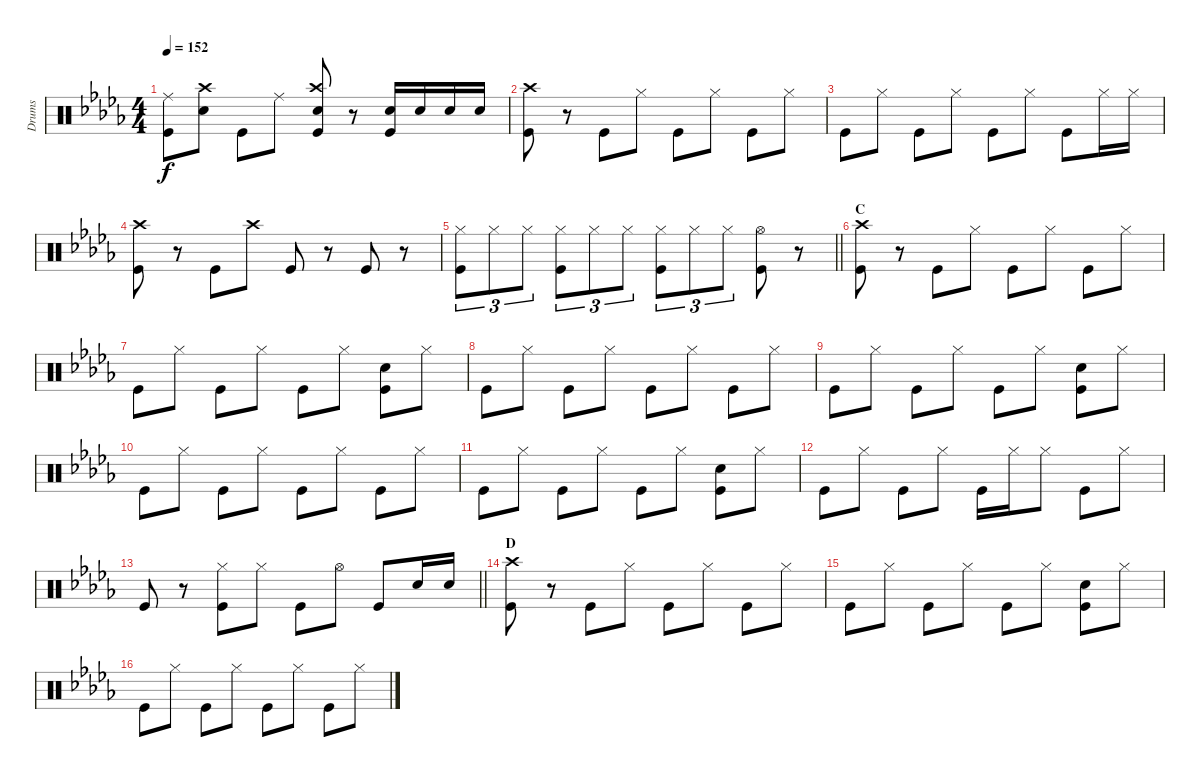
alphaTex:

\track ("Drums" "Drums") {instrument percussion}
\staff {score}
\articulation defaults
\ts (4 4)
\tempo 152
\clef neutral
\ks db
("Ride (middle)" "Kick (hit)").8{dy f} ("Crash high (hit)" "Snare (hit) 2").8 "Kick (hit)".8 "Ride (middle)".8 ("Crash high (hit)" "Snare (hit) 2" "Kick (hit)").8 r.8 ("Snare (hit) 2" "Kick (hit)").16 "Snare (hit) 2".16 "Snare (hit) 2".16 "Snare (hit) 2".16 |
("Crash high (hit)" "Kick (hit)").8 r.8 "Kick (hit)".8 "Hi-Hat (closed)".8 "Kick (hit)".8 "Hi-Hat (closed)".8 "Kick (hit)".8 "Hi-Hat (closed)".8 |
"Kick (hit)".8 "Hi-Hat (closed)".8 "Kick (hit)".8 "Hi-Hat (closed)".8 "Kick (hit)".8 "Hi-Hat (closed)".8 "Kick (hit)".8 "Hi-Hat (closed)".16 "Hi-Hat (closed)".16 |
("Crash high (hit)" "Kick (hit)").8 r.8 "Kick (hit)".8 "Crash high (hit)".8 "Kick (hit)".8 r.8 "Kick (hit)".8 r.8 |
\barLineRight lightlight
("Hi-Hat (closed)" "Kick (hit)").8{tu (3 2)} "Hi-Hat (closed)".8{tu (3 2)} "Hi-Hat (closed)".8{tu (3 2)} ("Hi-Hat (closed)" "Kick (hit)").8{tu (3 2)} "Hi-Hat (closed)".8{tu (3 2)} "Hi-Hat (closed)".8{tu (3 2)} ("Hi-Hat (closed)" "Kick (hit)").8{tu (3 2)} "Hi-Hat (closed)".8{tu (3 2)} "Hi-Hat (closed)".8{tu (3 2)} ("Hi-Hat (open)" "Kick (hit)").8 r.8 |
\section ("" "C")
("Crash high (hit)" "Kick (hit)").8 r.8 "Kick (hit)".8 "Hi-Hat (closed)".8 "Kick (hit)".8 "Hi-Hat (closed)".8 "Kick (hit)".8 "Hi-Hat (closed)".8 |
"Kick (hit)".8 "Hi-Hat (closed)".8 "Kick (hit)".8 "Hi-Hat (closed)".8 "Kick (hit)".8 "Hi-Hat (closed)".8 ("Snare (hit) 2" "Kick (hit)").8 "Hi-Hat (closed)".8 |
"Kick (hit)".8 "Hi-Hat (closed)".8 "Kick (hit)".8 "Hi-Hat (closed)".8 "Kick (hit)".8 "Hi-Hat (closed)".8 "Kick (hit)".8 "Hi-Hat (closed)".8 |
"Kick (hit)".8 "Hi-Hat (closed)".8 "Kick (hit)".8 "Hi-Hat (closed)".8 "Kick (hit)".8 "Hi-Hat (closed)".8 ("Snare (hit) 2" "Kick (hit)").8 "Hi-Hat (closed)".8 |
"Kick (hit)".8 "Hi-Hat (closed)".8 "Kick (hit)".8 "Hi-Hat (closed)".8 "Kick (hit)".8 "Hi-Hat (closed)".8 "Kick (hit)".8 "Hi-Hat (closed)".8 |
"Kick (hit)".8 "Hi-Hat (closed)".8 "Kick (hit)".8 "Hi-Hat (closed)".8 "Kick (hit)".8 "Hi-Hat (closed)".8 ("Snare (hit) 2" "Kick (hit)").8 "Hi-Hat (closed)".8 |
"Kick (hit)".8 "Hi-Hat (closed)".8 "Kick (hit)".8 "Hi-Hat (closed)".8 "Kick (hit)".16 "Hi-Hat (closed)".16 "Hi-Hat (closed)".8 "Kick (hit)".8 "Hi-Hat (closed)".8 |
\barLineRight lightlight "Kick (hit)".8
r.8 ("Hi-Hat (closed)" "Kick (hit)").8 "Hi-Hat (closed)".8 "Kick (hit)".8 "Hi-Hat (open)".8 "Kick (hit)".8 "Snare (hit) 2".16 "Snare (hit) 2".16 |
\section ("" "D")
("Crash high (hit)" "Kick (hit)").8 r.8 "Kick (hit)".8 "Hi-Hat (closed)".8 "Kick (hit)".8 "Hi-Hat (closed)".8 "Kick (hit)".8 "Hi-Hat (closed)".8 |
"Kick (hit)".8 "Hi-Hat (closed)".8 "Kick (hit)".8 "Hi-Hat (closed)".8 "Kick (hit)".8 "Hi-Hat (closed)".8 ("Snare (hit) 2" "Kick (hit)").8 "Hi-Hat (closed)".8 |
"Kick (hit)".8 "Hi-Hat (closed)".8 "Kick (hit)".8 "Hi-Hat (closed)".8 "Kick (hit)".8 "Hi-Hat (closed)".8 "Kick (hit)".8 "Hi-Hat (closed)".8
